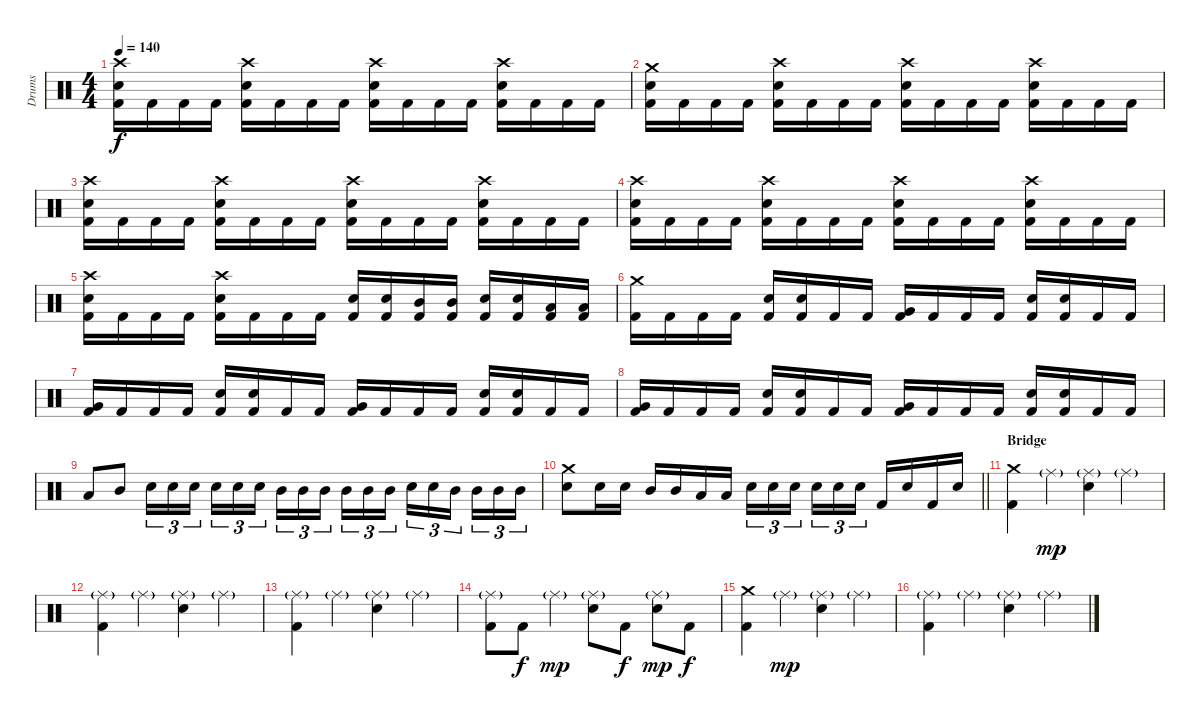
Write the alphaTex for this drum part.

\track ("Drums" "Drums") {instrument percussion}
\staff {score}
\articulation defaults
\ts (4 4)
\tempo 140
\clef neutral
\ks c
("Crash high (hit)" "Electric Snare (hit)" "Kick (hit) 2").16{dy f} "Kick (hit) 2".16 "Kick (hit) 2".16 "Kick (hit) 2".16 ("Crash high (hit)" "Electric Snare (hit)" "Kick (hit) 2").16 "Kick (hit) 2".16 "Kick (hit) 2".16 "Kick (hit) 2".16 ("Crash high (hit)" "Electric Snare (hit)" "Kick (hit) 2").16 "Kick (hit) 2".16 "Kick (hit) 2".16 "Kick (hit) 2".16 ("Crash high (hit)" "Electric Snare (hit)" "Kick (hit) 2").16 "Kick (hit) 2".16 "Kick (hit) 2".16 "Kick (hit) 2".16 |
("Crash medium (hit)" "Electric Snare (hit)" "Kick (hit) 2").16 "Kick (hit) 2".16 "Kick (hit) 2".16 "Kick (hit) 2".16 ("Crash high (hit)" "Electric Snare (hit)" "Kick (hit) 2").16 "Kick (hit) 2".16 "Kick (hit) 2".16 "Kick (hit) 2".16 ("Crash high (hit)" "Electric Snare (hit)" "Kick (hit) 2").16 "Kick (hit) 2".16 "Kick (hit) 2".16 "Kick (hit) 2".16 ("Crash high (hit)" "Electric Snare (hit)" "Kick (hit) 2").16 "Kick (hit) 2".16 "Kick (hit) 2".16 "Kick (hit) 2".16 |
("Crash high (hit)" "Electric Snare (hit)" "Kick (hit) 2").16 "Kick (hit) 2".16 "Kick (hit) 2".16 "Kick (hit) 2".16 ("Crash high (hit)" "Electric Snare (hit)" "Kick (hit) 2").16 "Kick (hit) 2".16 "Kick (hit) 2".16 "Kick (hit) 2".16 ("Crash high (hit)" "Electric Snare (hit)" "Kick (hit) 2").16 "Kick (hit) 2".16 "Kick (hit) 2".16 "Kick (hit) 2".16 ("Crash high (hit)" "Electric Snare (hit)" "Kick (hit) 2").16 "Kick (hit) 2".16 "Kick (hit) 2".16 "Kick (hit) 2".16 |
("Crash high (hit)" "Electric Snare (hit)" "Kick (hit) 2").16 "Kick (hit) 2".16 "Kick (hit) 2".16 "Kick (hit) 2".16 ("Crash high (hit)" "Electric Snare (hit)" "Kick (hit) 2").16 "Kick (hit) 2".16 "Kick (hit) 2".16 "Kick (hit) 2".16 ("Crash high (hit)" "Electric Snare (hit)" "Kick (hit) 2").16 "Kick (hit) 2".16 "Kick (hit) 2".16 "Kick (hit) 2".16 ("Crash high (hit)" "Electric Snare (hit)" "Kick (hit) 2").16 "Kick (hit) 2".16 "Kick (hit) 2".16 "Kick (hit) 2".16 |
("Crash high (hit)" "Electric Snare (hit)" "Kick (hit) 2").16 "Kick (hit) 2".16 "Kick (hit) 2".16 "Kick (hit) 2".16 ("Crash high (hit)" "Electric Snare (hit)" "Kick (hit) 2").16 "Kick (hit) 2".16 "Kick (hit) 2".16 "Kick (hit) 2".16 ("Electric Snare (hit)" "Kick (hit) 2").16 ("Electric Snare (hit)" "Kick (hit) 2").16 ("Mid Tom (hit)" "Kick (hit) 2").16 ("Mid Tom (hit)" "Kick (hit) 2").16 ("Electric Snare (hit)" "Kick (hit) 2").16 ("Electric Snare (hit)" "Kick (hit) 2").16 ("Low Tom (hit)" "Kick (hit) 2").16 ("Low Tom (hit)" "Kick (hit) 2").16 |
("Crash medium (hit)" "Kick (hit) 2").16 "Kick (hit) 2".16 "Kick (hit) 2".16 "Kick (hit) 2".16 ("Electric Snare (hit)" "Kick (hit) 2").16 ("Electric Snare (hit)" "Kick (hit) 2").16 "Kick (hit) 2".16 "Kick (hit) 2".16 ("Very Low Tom (hit)" "Kick (hit) 2").16 "Kick (hit) 2".16 "Kick (hit) 2".16 "Kick (hit) 2".16 ("Electric Snare (hit)" "Kick (hit) 2").16 ("Electric Snare (hit)" "Kick (hit) 2").16 "Kick (hit) 2".16 "Kick (hit) 2".16 |
("Very Low Tom (hit)" "Kick (hit) 2").16 "Kick (hit) 2".16 "Kick (hit) 2".16 "Kick (hit) 2".16 ("Electric Snare (hit)" "Kick (hit) 2").16 ("Electric Snare (hit)" "Kick (hit) 2").16 "Kick (hit) 2".16 "Kick (hit) 2".16 ("Very Low Tom (hit)" "Kick (hit) 2").16 "Kick (hit) 2".16 "Kick (hit) 2".16 "Kick (hit) 2".16 ("Electric Snare (hit)" "Kick (hit) 2").16 ("Electric Snare (hit)" "Kick (hit) 2").16 "Kick (hit) 2".16 "Kick (hit) 2".16 |
("Very Low Tom (hit)" "Kick (hit) 2").16 "Kick (hit) 2".16 "Kick (hit) 2".16 "Kick (hit) 2".16 ("Electric Snare (hit)" "Kick (hit) 2").16 ("Electric Snare (hit)" "Kick (hit) 2").16 "Kick (hit) 2".16 "Kick (hit) 2".16 ("Very Low Tom (hit)" "Kick (hit) 2").16 "Kick (hit) 2".16 "Kick (hit) 2".16 "Kick (hit) 2".16 ("Electric Snare (hit)" "Kick (hit) 2").16 ("Electric Snare (hit)" "Kick (hit) 2").16 "Kick (hit) 2".16 "Kick (hit) 2".16 |
"Low Tom (hit)".8 "Mid Tom (hit)".8 "Electric Snare (hit)".16{tu (3 2)} "Electric Snare (hit)".16{tu (3 2)} "Electric Snare (hit)".16{tu (3 2)} "Electric Snare (hit)".16{tu (3 2)} "Electric Snare (hit)".16{tu (3 2)} "Electric Snare (hit)".16{tu (3 2)} "Mid Tom (hit)".16{tu (3 2)} "Mid Tom (hit)".16{tu (3 2)} "Mid Tom (hit)".16{tu (3 2)} "Mid Tom (hit)".16{tu (3 2)} "Mid Tom (hit)".16{tu (3 2)} "Mid Tom (hit)".16{tu (3 2)} "Electric Snare (hit)".16{tu (3 2)} "Electric Snare (hit)".16{tu (3 2)} "Mid Tom (hit)".16{tu (3 2)} "Mid Tom (hit)".16{tu (3 2)} "Mid Tom (hit)".16{tu (3 2)} "Mid Tom (hit)".16{tu (3 2)} |
\barLineRight lightlight
("Crash medium (hit)" "Electric Snare (hit)").8 "Electric Snare (hit)".16 "Electric Snare (hit)".16 "Mid Tom (hit)".16 "Mid Tom (hit)".16 "Low Tom (hit)".16 "Low Tom (hit)".16 "Electric Snare (hit)".16{tu (3 2)} "Electric Snare (hit)".16{tu (3 2)} "Electric Snare (hit)".16{tu (3 2)} "Electric Snare (hit)".16{tu (3 2)} "Electric Snare (hit)".16{tu (3 2)} "Electric Snare (hit)".16{tu (3 2)} "Kick (hit) 2".16 "Electric Snare (hit)".16 "Kick (hit) 2".16 "Electric Snare (hit)".16 |
\section ("" "Bridge")
("Crash medium (hit)" "Kick (hit) 2").4 "Ride (middle)"{g}.4{dy mp} ("Ride (middle)"{g} "Electric Snare (hit)").4 "Ride (middle)"{g}.4 |
("Ride (middle)"{g} "Kick (hit) 2").4 "Ride (middle)"{g}.4 ("Ride (middle)"{g} "Electric Snare (hit)").4 "Ride (middle)"{g}.4 |
("Ride (middle)"{g} "Kick (hit) 2").4 "Ride (middle)"{g}.4 ("Ride (middle)"{g} "Electric Snare (hit)").4 "Ride (middle)"{g}.4 |
("Ride (middle)"{g} "Kick (hit) 2").8 "Kick (hit) 2".8{dy f} "Ride (middle)"{g}.4{dy mp} ("Ride (middle)"{g} "Electric Snare (hit)").8 "Kick (hit) 2".8{dy f} ("Ride (middle)"{g} "Electric Snare (hit)").8{dy mp} "Kick (hit) 2".8{dy f} |
("Crash medium (hit)" "Kick (hit) 2").4 "Ride (middle)"{g}.4{dy mp} ("Ride (middle)"{g} "Electric Snare (hit)").4 "Ride (middle)"{g}.4 |
("Ride (middle)"{g} "Kick (hit) 2").4 "Ride (middle)"{g}.4 ("Ride (middle)"{g} "Electric Snare (hit)").4 "Ride (middle)"{g}.4
